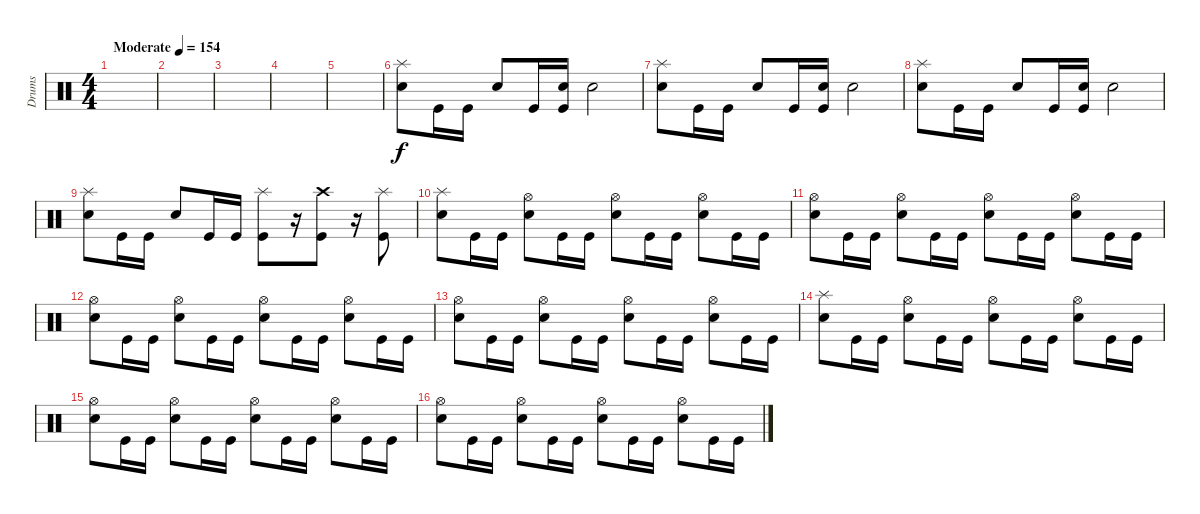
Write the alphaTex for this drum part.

\track ("Drums" "Drums") {instrument percussion}
\staff {score}
\articulation defaults
\ts (4 4)
\tempo (154 "Moderate")
\clef neutral
\ks c
|
|
|
|
|
("Splash (hit)" "Snare (hit) 2").8 "Kick (hit)".16 "Kick (hit)".16 "Snare (hit) 2".8 "Kick (hit)".16 ("Snare (hit) 2" "Kick (hit)").16 "Snare (hit) 2".2 |
("Splash (hit)" "Snare (hit) 2").8 "Kick (hit)".16 "Kick (hit)".16 "Snare (hit) 2".8 "Kick (hit)".16 ("Snare (hit) 2" "Kick (hit)").16 "Snare (hit) 2".2 |
("Splash (hit)" "Snare (hit) 2").8 "Kick (hit)".16 "Kick (hit)".16 "Snare (hit) 2".8 "Kick (hit)".16 ("Snare (hit) 2" "Kick (hit)").16 "Snare (hit) 2".2 |
("Splash (hit)" "Snare (hit) 2").8 "Kick (hit)".16 "Kick (hit)".16 "Snare (hit) 2".8 "Kick (hit)".16 "Kick (hit)".16 ("Splash (hit)" "Kick (hit)").8 r.16 ("Crash high (hit)" "Kick (hit)").8 r.16 ("Splash (hit)" "Kick (hit)").8 |
("Splash (hit)" "Snare (hit) 2").8 "Kick (hit)".16 "Kick (hit)".16 ("Hi-Hat (open)" "Snare (hit) 2").8 "Kick (hit)".16 "Kick (hit)".16 ("Hi-Hat (open)" "Snare (hit) 2").8 "Kick (hit)".16 "Kick (hit)".16 ("Hi-Hat (open)" "Snare (hit) 2").8 "Kick (hit)".16 "Kick (hit)".16 |
("Hi-Hat (open)" "Snare (hit) 2").8 "Kick (hit)".16 "Kick (hit)".16 ("Hi-Hat (open)" "Snare (hit) 2").8 "Kick (hit)".16 "Kick (hit)".16 ("Hi-Hat (open)" "Snare (hit) 2").8 "Kick (hit)".16 "Kick (hit)".16 ("Hi-Hat (open)" "Snare (hit) 2").8 "Kick (hit)".16 "Kick (hit)".16 |
("Hi-Hat (open)" "Snare (hit) 2").8 "Kick (hit)".16 "Kick (hit)".16 ("Hi-Hat (open)" "Snare (hit) 2").8 "Kick (hit)".16 "Kick (hit)".16 ("Hi-Hat (open)" "Snare (hit) 2").8 "Kick (hit)".16 "Kick (hit)".16 ("Hi-Hat (open)" "Snare (hit) 2").8 "Kick (hit)".16 "Kick (hit)".16 |
("Hi-Hat (open)" "Snare (hit) 2").8 "Kick (hit)".16 "Kick (hit)".16 ("Hi-Hat (open)" "Snare (hit) 2").8 "Kick (hit)".16 "Kick (hit)".16 ("Hi-Hat (open)" "Snare (hit) 2").8 "Kick (hit)".16 "Kick (hit)".16 ("Hi-Hat (open)" "Snare (hit) 2").8 "Kick (hit)".16 "Kick (hit)".16 |
("Splash (hit)" "Snare (hit) 2").8 "Kick (hit)".16 "Kick (hit)".16 ("Hi-Hat (open)" "Snare (hit) 2").8 "Kick (hit)".16 "Kick (hit)".16 ("Hi-Hat (open)" "Snare (hit) 2").8 "Kick (hit)".16 "Kick (hit)".16 ("Hi-Hat (open)" "Snare (hit) 2").8 "Kick (hit)".16 "Kick (hit)".16 |
("Hi-Hat (open)" "Snare (hit) 2").8 "Kick (hit)".16 "Kick (hit)".16 ("Hi-Hat (open)" "Snare (hit) 2").8 "Kick (hit)".16 "Kick (hit)".16 ("Hi-Hat (open)" "Snare (hit) 2").8 "Kick (hit)".16 "Kick (hit)".16 ("Hi-Hat (open)" "Snare (hit) 2").8 "Kick (hit)".16 "Kick (hit)".16 |
("Hi-Hat (open)" "Snare (hit) 2").8 "Kick (hit)".16 "Kick (hit)".16 ("Hi-Hat (open)" "Snare (hit) 2").8 "Kick (hit)".16 "Kick (hit)".16 ("Hi-Hat (open)" "Snare (hit) 2").8 "Kick (hit)".16 "Kick (hit)".16 ("Hi-Hat (open)" "Snare (hit) 2").8 "Kick (hit)".16 "Kick (hit)".16
